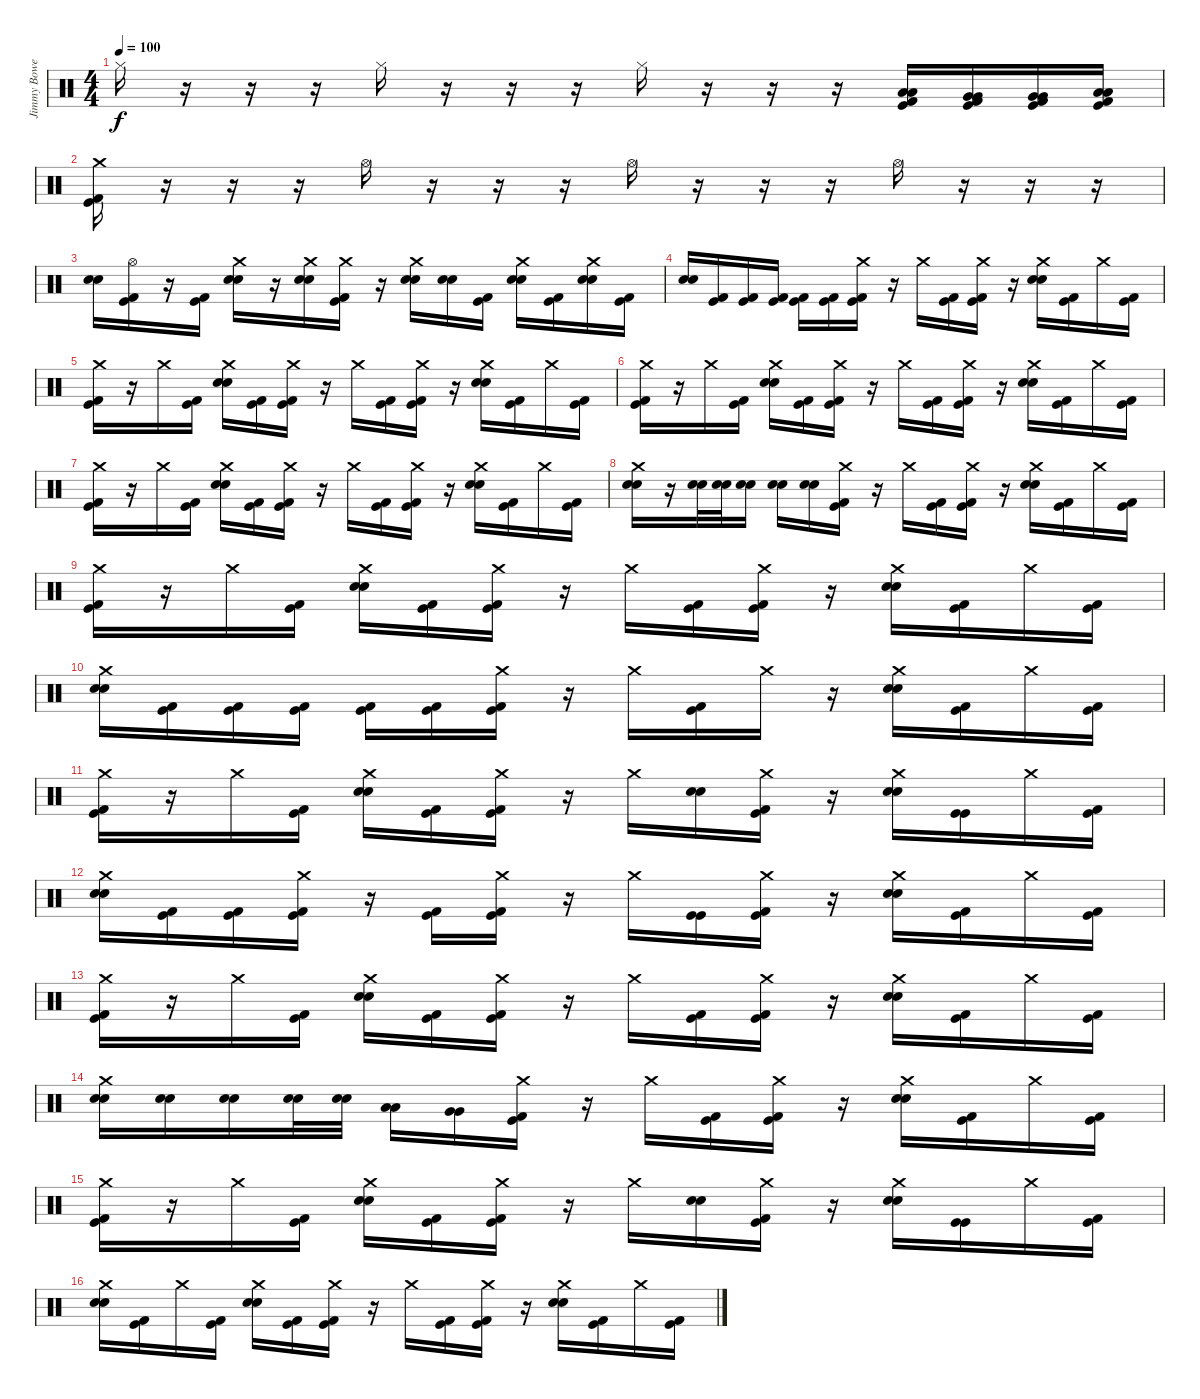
\track ("Jimmy Bower" "Jimmy Bowe") {instrument percussion}
\staff {score}
\articulation defaults
\ts (4 4)
\tempo 100
\clef neutral
\ks c "Hi-Hat (closed)".16{dy f}
r.16 r.16 r.16 "Hi-Hat (closed)".16 r.16 r.16 r.16 "Hi-Hat (closed)".16 r.16 r.16 r.16 ("Low Tom (hit)" "Low Tom (hit)" "Kick (hit)" "Kick (hit) 2").16 ("Very Low Tom (hit)" "Very Low Tom (hit)" "Kick (hit)" "Kick (hit) 2").16 ("Very Low Tom (hit)" "Very Low Tom (hit)" "Kick (hit)" "Kick (hit) 2").16 ("Low Floor Tom (hit)" "Low Floor Tom (hit)" "Kick (hit)" "Kick (hit) 2").16 |
("Crash medium (hit)" "Kick (hit)" "Kick (hit) 2").16 r.16 r.16 r.16 "Hi-Hat (open)".16 r.16 r.16 r.16 "Hi-Hat (open)".16 r.16 r.16 r.16 "Hi-Hat (open)".16 r.16 r.16 r.16 |
("Electric Snare (hit)" "Electric Snare (hit)").16 ("Hi-Hat (open)" "Kick (hit) 2" "Kick (hit)").16 r.16 ("Kick (hit) 2" "Kick (hit)").16 ("Crash medium (hit)" "Electric Snare (hit)" "Electric Snare (hit)").16 r.16 ("Crash medium (hit)" "Electric Snare (hit)" "Electric Snare (hit)").16 ("Crash medium (hit)" "Kick (hit) 2" "Kick (hit)").16 r.16 ("Crash medium (hit)" "Electric Snare (hit)" "Electric Snare (hit)").16 ("Electric Snare (hit)" "Electric Snare (hit)").16 ("Kick (hit) 2" "Kick (hit)").16 ("Crash medium (hit)" "Electric Snare (hit)" "Electric Snare (hit)").16 ("Kick (hit) 2" "Kick (hit)").16 ("Crash medium (hit)" "Electric Snare (hit)" "Electric Snare (hit)").16 ("Kick (hit) 2" "Kick (hit)").16 |
("Electric Snare (hit)" "Electric Snare (hit)").16 ("Kick (hit) 2" "Kick (hit)").16 ("Kick (hit) 2" "Kick (hit)").16 ("Kick (hit) 2" "Kick (hit)").16 ("Kick (hit) 2" "Kick (hit)").16 ("Kick (hit) 2" "Kick (hit)").16 ("Crash medium (hit)" "Kick (hit) 2" "Kick (hit)").16 r.16 "Crash medium (hit)".16 ("Kick (hit) 2" "Kick (hit)").16 ("Crash medium (hit)" "Kick (hit)" "Kick (hit) 2").16 r.16 ("Crash medium (hit)" "Electric Snare (hit)" "Electric Snare (hit)").16 ("Kick (hit) 2" "Kick (hit)").16 "Crash medium (hit)".16 ("Kick (hit) 2" "Kick (hit)").16 |
("Crash medium (hit)" "Kick (hit) 2" "Kick (hit)").16 r.16 "Crash medium (hit)".16 ("Kick (hit) 2" "Kick (hit)").16 ("Crash medium (hit)" "Electric Snare (hit)" "Electric Snare (hit)").16 ("Kick (hit) 2" "Kick (hit)").16 ("Crash medium (hit)" "Kick (hit)" "Kick (hit) 2").16 r.16 "Crash medium (hit)".16 ("Kick (hit) 2" "Kick (hit)").16 ("Crash medium (hit)" "Kick (hit)" "Kick (hit) 2").16 r.16 ("Crash medium (hit)" "Electric Snare (hit)" "Electric Snare (hit)").16 ("Kick (hit) 2" "Kick (hit)").16 "Crash medium (hit)".16 ("Kick (hit)" "Kick (hit) 2").16 |
("Crash medium (hit)" "Kick (hit) 2" "Kick (hit)").16 r.16 "Crash medium (hit)".16 ("Kick (hit) 2" "Kick (hit)").16 ("Crash medium (hit)" "Electric Snare (hit)" "Electric Snare (hit)").16 ("Kick (hit) 2" "Kick (hit)").16 ("Crash medium (hit)" "Kick (hit)" "Kick (hit) 2").16 r.16 "Crash medium (hit)".16 ("Kick (hit) 2" "Kick (hit)").16 ("Crash medium (hit)" "Kick (hit)" "Kick (hit) 2").16 r.16 ("Crash medium (hit)" "Electric Snare (hit)" "Electric Snare (hit)").16 ("Kick (hit) 2" "Kick (hit)").16 "Crash medium (hit)".16 ("Kick (hit)" "Kick (hit) 2").16 |
("Crash medium (hit)" "Kick (hit) 2" "Kick (hit)").16 r.16 "Crash medium (hit)".16 ("Kick (hit) 2" "Kick (hit)").16 ("Crash medium (hit)" "Electric Snare (hit)" "Electric Snare (hit)").16 ("Kick (hit) 2" "Kick (hit)").16 ("Crash medium (hit)" "Kick (hit)" "Kick (hit) 2").16 r.16 "Crash medium (hit)".16 ("Kick (hit) 2" "Kick (hit)").16 ("Crash medium (hit)" "Kick (hit)" "Kick (hit) 2").16 r.16 ("Crash medium (hit)" "Electric Snare (hit)" "Electric Snare (hit)").16 ("Kick (hit) 2" "Kick (hit)").16 "Crash medium (hit)".16 ("Kick (hit)" "Kick (hit) 2").16 |
("Crash medium (hit)" "Electric Snare (hit)" "Electric Snare (hit)").16 r.16 ("Electric Snare (hit)" "Electric Snare (hit)").32 ("Electric Snare (hit)" "Electric Snare (hit)").32 ("Electric Snare (hit)" "Electric Snare (hit)").16 ("Electric Snare (hit)" "Electric Snare (hit)").16 ("Electric Snare (hit)" "Electric Snare (hit)").16 ("Crash medium (hit)" "Kick (hit) 2" "Kick (hit)").16 r.16 "Crash medium (hit)".16 ("Kick (hit) 2" "Kick (hit)").16 ("Crash medium (hit)" "Kick (hit)" "Kick (hit) 2").16 r.16 ("Crash medium (hit)" "Electric Snare (hit)" "Electric Snare (hit)").16 ("Kick (hit) 2" "Kick (hit)").16 "Crash medium (hit)".16 ("Kick (hit) 2" "Kick (hit)").16 |
("Crash medium (hit)" "Kick (hit) 2" "Kick (hit)").16 r.16 "Crash medium (hit)".16 ("Kick (hit) 2" "Kick (hit)").16 ("Crash medium (hit)" "Electric Snare (hit)" "Electric Snare (hit)").16 ("Kick (hit) 2" "Kick (hit)").16 ("Crash medium (hit)" "Kick (hit)" "Kick (hit) 2").16 r.16 "Crash medium (hit)".16 ("Kick (hit) 2" "Kick (hit)").16 ("Crash medium (hit)" "Kick (hit)" "Kick (hit) 2").16 r.16 ("Crash medium (hit)" "Electric Snare (hit)" "Electric Snare (hit)").16 ("Kick (hit) 2" "Kick (hit)").16 "Crash medium (hit)".16 ("Kick (hit)" "Kick (hit) 2").16 |
("Crash medium (hit)" "Electric Snare (hit)" "Electric Snare (hit)").16 ("Kick (hit) 2" "Kick (hit)").16 ("Kick (hit) 2" "Kick (hit)").16 ("Kick (hit) 2" "Kick (hit)").16 ("Kick (hit) 2" "Kick (hit)").16 ("Kick (hit) 2" "Kick (hit)").16 ("Crash medium (hit)" "Kick (hit) 2" "Kick (hit)").16 r.16 "Crash medium (hit)".16 ("Kick (hit) 2" "Kick (hit)").16 "Crash medium (hit)".16 r.16 ("Crash medium (hit)" "Electric Snare (hit)" "Electric Snare (hit)").16 ("Kick (hit) 2" "Kick (hit)").16 "Crash medium (hit)".16 ("Kick (hit) 2" "Kick (hit)").16 |
("Crash medium (hit)" "Kick (hit) 2" "Kick (hit)").16 r.16 "Crash medium (hit)".16 ("Kick (hit) 2" "Kick (hit)").16 ("Crash medium (hit)" "Electric Snare (hit)" "Electric Snare (hit)").16 ("Kick (hit) 2" "Kick (hit)").16 ("Crash medium (hit)" "Kick (hit)" "Kick (hit) 2").16 r.16 "Crash medium (hit)".16 ("Electric Snare (hit)" "Electric Snare (hit)").16 ("Crash medium (hit)" "Kick (hit) 2" "Kick (hit)").16 r.16 ("Crash medium (hit)" "Electric Snare (hit)" "Electric Snare (hit)").16 ("Kick (hit)" "Kick (hit)").16 "Crash medium (hit)".16 ("Kick (hit) 2" "Kick (hit)").16 |
("Crash medium (hit)" "Electric Snare (hit)" "Electric Snare (hit)").16 ("Kick (hit)" "Kick (hit) 2").16 ("Kick (hit)" "Kick (hit) 2").16 ("Crash medium (hit)" "Kick (hit) 2" "Kick (hit)").16 r.16 ("Kick (hit)" "Kick (hit) 2").16 ("Crash medium (hit)" "Kick (hit) 2" "Kick (hit)").16 r.16 "Crash medium (hit)".16 ("Kick (hit)" "Kick (hit)").16 ("Crash medium (hit)" "Kick (hit)" "Kick (hit) 2").16 r.16 ("Crash medium (hit)" "Electric Snare (hit)" "Electric Snare (hit)").16 ("Kick (hit) 2" "Kick (hit)").16 "Crash medium (hit)".16 ("Kick (hit)" "Kick (hit) 2").16 |
("Crash medium (hit)" "Kick (hit) 2" "Kick (hit)").16 r.16 "Crash medium (hit)".16 ("Kick (hit) 2" "Kick (hit)").16 ("Crash medium (hit)" "Electric Snare (hit)" "Electric Snare (hit)").16 ("Kick (hit) 2" "Kick (hit)").16 ("Crash medium (hit)" "Kick (hit)" "Kick (hit) 2").16 r.16 "Crash medium (hit)".16 ("Kick (hit) 2" "Kick (hit)").16 ("Crash medium (hit)" "Kick (hit)" "Kick (hit) 2").16 r.16 ("Crash medium (hit)" "Electric Snare (hit)" "Electric Snare (hit)").16 ("Kick (hit) 2" "Kick (hit)").16 "Crash medium (hit)".16 ("Kick (hit)" "Kick (hit) 2").16 |
("Crash medium (hit)" "Electric Snare (hit)" "Electric Snare (hit)").16 ("Electric Snare (hit)" "Electric Snare (hit)").16 ("Electric Snare (hit)" "Electric Snare (hit)").16 ("Electric Snare (hit)" "Electric Snare (hit)").32 ("Electric Snare (hit)" "Electric Snare (hit)").32 ("Low Tom (hit)" "Low Tom (hit)").16 ("Very Low Tom (hit)" "Very Low Tom (hit)").16 ("Crash medium (hit)" "Kick (hit) 2" "Kick (hit)").16 r.16 "Crash medium (hit)".16 ("Kick (hit)" "Kick (hit) 2").16 ("Crash medium (hit)" "Kick (hit)" "Kick (hit) 2").16 r.16 ("Crash medium (hit)" "Electric Snare (hit)" "Electric Snare (hit)").16 ("Kick (hit) 2" "Kick (hit)").16 "Crash medium (hit)".16 ("Kick (hit) 2" "Kick (hit)").16 |
("Crash medium (hit)" "Kick (hit) 2" "Kick (hit)").16 r.16 "Crash medium (hit)".16 ("Kick (hit) 2" "Kick (hit)").16 ("Crash medium (hit)" "Electric Snare (hit)" "Electric Snare (hit)").16 ("Kick (hit) 2" "Kick (hit)").16 ("Crash medium (hit)" "Kick (hit)" "Kick (hit) 2").16 r.16 "Crash medium (hit)".16 ("Electric Snare (hit)" "Electric Snare (hit)").16 ("Crash medium (hit)" "Kick (hit) 2" "Kick (hit)").16 r.16 ("Crash medium (hit)" "Electric Snare (hit)" "Electric Snare (hit)").16 ("Kick (hit)" "Kick (hit)").16 "Crash medium (hit)".16 ("Kick (hit) 2" "Kick (hit)").16 |
("Crash medium (hit)" "Electric Snare (hit)" "Electric Snare (hit)").16 ("Kick (hit) 2" "Kick (hit)").16 "Crash medium (hit)".16 ("Kick (hit)" "Kick (hit) 2").16 ("Crash medium (hit)" "Electric Snare (hit)" "Electric Snare (hit)").16 ("Kick (hit)" "Kick (hit) 2").16 ("Crash medium (hit)" "Kick (hit) 2" "Kick (hit)").16 r.16 "Crash medium (hit)".16 ("Kick (hit) 2" "Kick (hit)").16 ("Crash medium (hit)" "Kick (hit) 2" "Kick (hit)").16 r.16 ("Crash medium (hit)" "Electric Snare (hit)" "Electric Snare (hit)").16 ("Kick (hit) 2" "Kick (hit)").16 "Crash medium (hit)".16 ("Kick (hit) 2" "Kick (hit)").16
